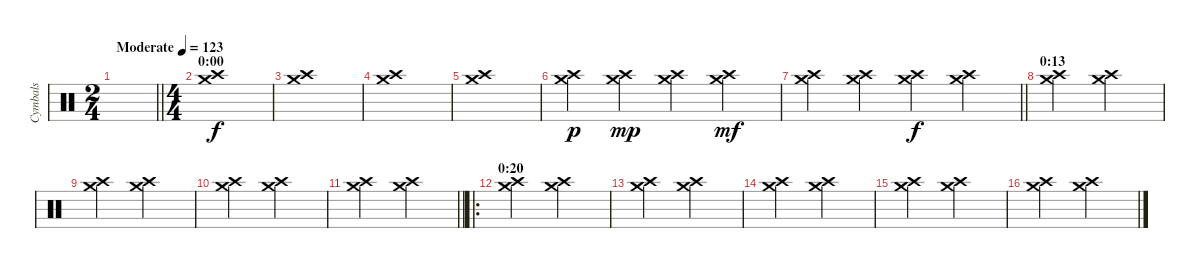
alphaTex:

\track ("Cymbals" "Cymbals") {instrument percussion}
\staff {score}
\articulation defaults
\ts (2 4)
\tempo (123 "Moderate")
\clef neutral
\barLineRight lightlight
\ks c
|
\ts (4 4)
\section ("" "0:00")
("Crash medium (hit)" "Crash high (hit)").1 |
("Crash medium (hit)" "Crash high (hit)").1 |
("Crash medium (hit)" "Crash high (hit)").1 |
("Crash medium (hit)" "Crash high (hit)").1 |
("Crash medium (hit)" "Crash high (hit)").4{dy p} ("Crash medium (hit)" "Crash high (hit)").4{dy mp} ("Crash medium (hit)" "Crash high (hit)").4 ("Crash medium (hit)" "Crash high (hit)").4{dy mf} |
\barLineRight lightlight
("Crash medium (hit)" "Crash high (hit)").4 ("Crash medium (hit)" "Crash high (hit)").4 ("Crash medium (hit)" "Crash high (hit)").4{dy f} ("Crash medium (hit)" "Crash high (hit)").4 |
\section ("" "0:13")
("Crash medium (hit)" "Crash high (hit)").2 ("Crash medium (hit)" "Crash high (hit)").2 |
("Crash medium (hit)" "Crash high (hit)").2 ("Crash medium (hit)" "Crash high (hit)").2 |
("Crash medium (hit)" "Crash high (hit)").2 ("Crash medium (hit)" "Crash high (hit)").2 |
\barLineRight lightlight
("Crash medium (hit)" "Crash high (hit)").2 ("Crash medium (hit)" "Crash high (hit)").2 |
\ro
\section ("" "0:20")
("Crash medium (hit)" "Crash high (hit)").2 ("Crash medium (hit)" "Crash high (hit)").2 |
("Crash medium (hit)" "Crash high (hit)").2 ("Crash medium (hit)" "Crash high (hit)").2 |
("Crash medium (hit)" "Crash high (hit)").2 ("Crash medium (hit)" "Crash high (hit)").2 |
("Crash medium (hit)" "Crash high (hit)").2 ("Crash medium (hit)" "Crash high (hit)").2 |
("Crash medium (hit)" "Crash high (hit)").2 ("Crash medium (hit)" "Crash high (hit)").2
